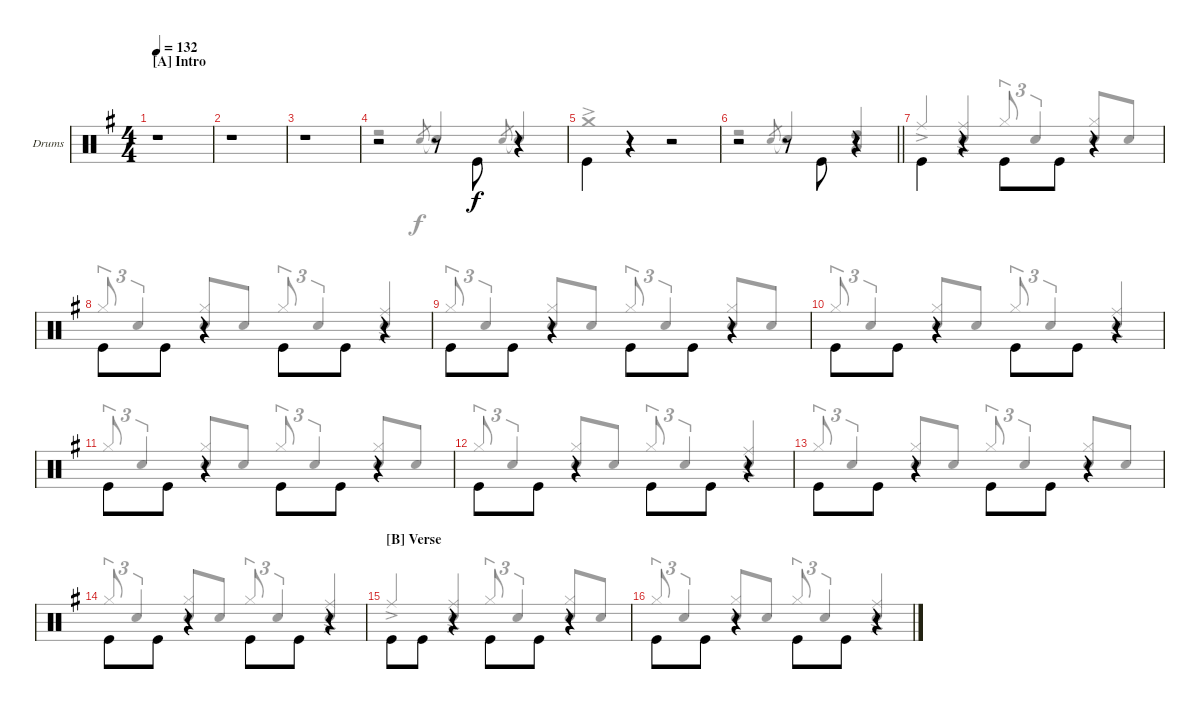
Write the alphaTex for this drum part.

\bracketExtendMode groupsimilarinstruments
\firstSystemTrackNameOrientation horizontal
\otherSystemsTrackNameOrientation horizontal
\track ("Drums" "Drums") {instrument percussion}
\staff {score}
\articulation defaults
\voice
\ts (4 4)
\section ("A" "Intro")
\tempo 132
\clef neutral
\scale
1.07314
\ks g
r.1{dy f} |
\scale
0.92686 r.1 |
\scale
1.04288 r.1 |
\scale
0.957125 r.2 r.8 "Kick (hit)".8{beam invert} r.4 |
\scale
1.04288 "Kick (hit)".4{beam invert} r.4 r.2 |
\scale
0.957125
\barLineRight lightlight
r.2 r.8 "Kick (hit)".8{beam invert} r.4 |
\scale
1.04288 "Kick (hit)".4{beam invert} r.4 "Kick (hit)".8{beam invert} "Kick (hit)".8 r.4 |
\scale
0.957125 "Kick (hit)".8{beam invert} "Kick (hit)".8 r.4 "Kick (hit)".8{beam invert} "Kick (hit)".8 r.4 |
\scale
1.04288 "Kick (hit)".8{beam invert} "Kick (hit)".8 r.4 "Kick (hit)".8{beam invert} "Kick (hit)".8 r.4 |
\scale
0.957125 "Kick (hit)".8{beam invert} "Kick (hit)".8 r.4 "Kick (hit)".8{beam invert} "Kick (hit)".8 r.4 |
\scale
1.04288 "Kick (hit)".8{beam invert} "Kick (hit)".8 r.4 "Kick (hit)".8{beam invert} "Kick (hit)".8 r.4 |
\scale
0.957125 "Kick (hit)".8{beam invert} "Kick (hit)".8 r.4 "Kick (hit)".8{beam invert} "Kick (hit)".8 r.4 |
\scale
1.04288 "Kick (hit)".8{beam invert} "Kick (hit)".8 r.4 "Kick (hit)".8{beam invert} "Kick (hit)".8 r.4 |
\scale
0.957125 "Kick (hit)".8{beam invert} "Kick (hit)".8 r.4 "Kick (hit)".8{beam invert} "Kick (hit)".8 r.4 |
\section ("B" "Verse")
\scale
1.04288 "Kick (hit)".8{beam invert} "Kick (hit)".8 r.4 "Kick (hit)".8{beam invert} "Kick (hit)".8 r.4 |
\scale
0.957125 "Kick (hit)".8{beam invert} "Kick (hit)".8 r.4 "Kick (hit)".8{beam invert} "Kick (hit)".8 r.4
\voice
\clef neutral
\ottava regular
\simile none
\scale
1.07314
\ks g
|
\scale
0.92686 |
\scale
1.04288 |
\scale
0.957125 r.2 "Snare (hit) 2".8{gr beam invert} "Snare (hit) 2"{t}.4{beam invert} "Snare (hit) 2".8{gr beam invert} "Snare (hit) 2"{t}.4{beam invert} |
\scale
1.04288 "Crash medium (hit)"{ac}.1 |
\scale
0.957125
\barLineRight lightlight
r.2 "Snare (hit) 2".8{gr beam invert} "Snare (hit) 2"{t}.4{beam invert} ("High Tom (hit)" "Low Tom (hit)").4{beam invert} |
\scale
1.04288 "Ride (middle)"{ac}.4{beam invert} ("Snare (hit) 2" "Ride (middle)"{ac}).4{beam invert} "Hi-Hat (closed)".8{tu (3 2) beam invert} "Snare (hit) 2".4{tu (3 2) beam invert} ("Hi-Hat (closed)" "Snare (hit) 2").8{beam invert} "Snare (hit) 2".8 |
\scale
0.957125 "Hi-Hat (closed)".8{tu (3 2) beam invert} "Snare (hit) 2".4{tu (3 2) beam invert} ("Hi-Hat (closed)" "Snare (hit) 2").8{beam invert} "Snare (hit) 2".8 "Hi-Hat (closed)".8{tu (3 2) beam invert} "Snare (hit) 2".4{tu (3 2) beam invert} ("Snare (hit) 2" "Ride (middle)"{ac}).4{beam invert} |
\scale
1.04288 "Hi-Hat (closed)".8{tu (3 2) beam invert} "Snare (hit) 2".4{tu (3 2) beam invert} ("Hi-Hat (closed)" "Snare (hit) 2").8{beam invert} "Snare (hit) 2".8 "Hi-Hat (closed)".8{tu (3 2) beam invert} "Snare (hit) 2".4{tu (3 2) beam invert} ("Hi-Hat (closed)" "Snare (hit) 2").8{beam invert} "Snare (hit) 2".8 |
\scale
0.957125 "Hi-Hat (closed)".8{tu (3 2) beam invert} "Snare (hit) 2".4{tu (3 2) beam invert} ("Hi-Hat (closed)" "Snare (hit) 2").8{beam invert} "Snare (hit) 2".8 "Hi-Hat (closed)".8{tu (3 2) beam invert} "Snare (hit) 2".4{tu (3 2) beam invert} ("Snare (hit) 2" "Ride (middle)"{ac}).4{beam invert} |
\scale
1.04288 "Hi-Hat (closed)".8{tu (3 2) beam invert} "Snare (hit) 2".4{tu (3 2) beam invert} ("Hi-Hat (closed)" "Snare (hit) 2").8{beam invert} "Snare (hit) 2".8 "Hi-Hat (closed)".8{tu (3 2) beam invert} "Snare (hit) 2".4{tu (3 2) beam invert} ("Hi-Hat (closed)" "Snare (hit) 2").8{beam invert} "Snare (hit) 2".8 |
\scale
0.957125 "Hi-Hat (closed)".8{tu (3 2) beam invert} "Snare (hit) 2".4{tu (3 2) beam invert} ("Hi-Hat (closed)" "Snare (hit) 2").8{beam invert} "Snare (hit) 2".8 "Hi-Hat (closed)".8{tu (3 2) beam invert} "Snare (hit) 2".4{tu (3 2) beam invert} ("Snare (hit) 2" "Ride (middle)"{ac}).4{beam invert} |
\scale
1.04288 "Hi-Hat (closed)".8{tu (3 2) beam invert} "Snare (hit) 2".4{tu (3 2) beam invert} ("Hi-Hat (closed)" "Snare (hit) 2").8{beam invert} "Snare (hit) 2".8 "Hi-Hat (closed)".8{tu (3 2) beam invert} "Snare (hit) 2".4{tu (3 2) beam invert} ("Hi-Hat (closed)" "Snare (hit) 2").8{beam invert} "Snare (hit) 2".8 |
\scale
0.957125 "Hi-Hat (closed)".8{tu (3 2) beam invert} "Snare (hit) 2".4{tu (3 2) beam invert} ("Hi-Hat (closed)" "Snare (hit) 2").8{beam invert} "Snare (hit) 2".8 "Hi-Hat (closed)".8{tu (3 2) beam invert} "Snare (hit) 2".4{tu (3 2) beam invert} ("Snare (hit) 2" "Ride (middle)"{ac}).4{beam invert} |
\scale
1.04288 "Ride (middle)"{ac}.4{beam invert} ("Snare (hit) 2" "Ride (middle)"{ac}).4{beam invert} "Hi-Hat (closed)".8{tu (3 2) beam invert} "Snare (hit) 2".4{tu (3 2) beam invert} ("Hi-Hat (closed)" "Snare (hit) 2").8{beam invert} "Snare (hit) 2".8 |
\scale
0.957125 "Hi-Hat (closed)".8{tu (3 2) beam invert} "Snare (hit) 2".4{tu (3 2) beam invert} ("Hi-Hat (closed)" "Snare (hit) 2").8{beam invert} "Snare (hit) 2".8 "Hi-Hat (closed)".8{tu (3 2) beam invert} "Snare (hit) 2".4{tu (3 2) beam invert} ("Snare (hit) 2" "Ride (middle)"{ac}).4{beam invert}
